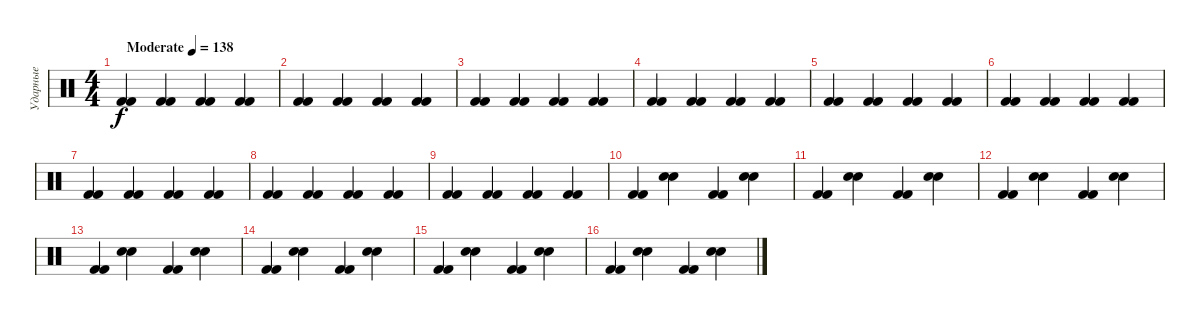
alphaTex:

\track ("Ударные" "Ударные") {instrument percussion}
\staff {score}
\articulation defaults
\ts (4 4)
\tempo (138 "Moderate")
\clef neutral
\ks c
("Kick (hit) 2" "Kick (hit) 2").4{dy f} ("Kick (hit) 2" "Kick (hit) 2").4 ("Kick (hit) 2" "Kick (hit) 2").4 ("Kick (hit) 2" "Kick (hit) 2").4 |
("Kick (hit) 2" "Kick (hit) 2").4 ("Kick (hit) 2" "Kick (hit) 2").4 ("Kick (hit) 2" "Kick (hit) 2").4 ("Kick (hit) 2" "Kick (hit) 2").4 |
("Kick (hit) 2" "Kick (hit) 2").4 ("Kick (hit) 2" "Kick (hit) 2").4 ("Kick (hit) 2" "Kick (hit) 2").4 ("Kick (hit) 2" "Kick (hit) 2").4 |
("Kick (hit) 2" "Kick (hit) 2").4 ("Kick (hit) 2" "Kick (hit) 2").4 ("Kick (hit) 2" "Kick (hit) 2").4 ("Kick (hit) 2" "Kick (hit) 2").4 |
("Kick (hit) 2" "Kick (hit) 2").4 ("Kick (hit) 2" "Kick (hit) 2").4 ("Kick (hit) 2" "Kick (hit) 2").4 ("Kick (hit) 2" "Kick (hit) 2").4 |
("Kick (hit) 2" "Kick (hit) 2").4 ("Kick (hit) 2" "Kick (hit) 2").4 ("Kick (hit) 2" "Kick (hit) 2").4 ("Kick (hit) 2" "Kick (hit) 2").4 |
("Kick (hit) 2" "Kick (hit) 2").4 ("Kick (hit) 2" "Kick (hit) 2").4 ("Kick (hit) 2" "Kick (hit) 2").4 ("Kick (hit) 2" "Kick (hit) 2").4 |
("Kick (hit) 2" "Kick (hit) 2").4 ("Kick (hit) 2" "Kick (hit) 2").4 ("Kick (hit) 2" "Kick (hit) 2").4 ("Kick (hit) 2" "Kick (hit) 2").4 |
("Kick (hit) 2" "Kick (hit) 2").4 ("Kick (hit) 2" "Kick (hit) 2").4 ("Kick (hit) 2" "Kick (hit) 2").4 ("Kick (hit) 2" "Kick (hit) 2").4 |
("Kick (hit) 2" "Kick (hit) 2").4 ("Electric Snare (hit)" "Electric Snare (hit)").4 ("Kick (hit) 2" "Kick (hit) 2").4 ("Electric Snare (hit)" "Electric Snare (hit)").4 |
("Kick (hit) 2" "Kick (hit) 2").4 ("Electric Snare (hit)" "Electric Snare (hit)").4 ("Kick (hit) 2" "Kick (hit) 2").4 ("Electric Snare (hit)" "Electric Snare (hit)").4 |
("Kick (hit) 2" "Kick (hit) 2").4 ("Electric Snare (hit)" "Electric Snare (hit)").4 ("Kick (hit) 2" "Kick (hit) 2").4 ("Electric Snare (hit)" "Electric Snare (hit)").4 |
("Kick (hit) 2" "Kick (hit) 2").4 ("Electric Snare (hit)" "Electric Snare (hit)").4 ("Kick (hit) 2" "Kick (hit) 2").4 ("Electric Snare (hit)" "Electric Snare (hit)").4 |
("Kick (hit) 2" "Kick (hit) 2").4 ("Electric Snare (hit)" "Electric Snare (hit)").4 ("Kick (hit) 2" "Kick (hit) 2").4 ("Electric Snare (hit)" "Electric Snare (hit)").4 |
("Kick (hit) 2" "Kick (hit) 2").4 ("Electric Snare (hit)" "Electric Snare (hit)").4 ("Kick (hit) 2" "Kick (hit) 2").4 ("Electric Snare (hit)" "Electric Snare (hit)").4 |
("Kick (hit) 2" "Kick (hit) 2").4 ("Electric Snare (hit)" "Electric Snare (hit)").4 ("Kick (hit) 2" "Kick (hit) 2").4 ("Electric Snare (hit)" "Electric Snare (hit)").4
